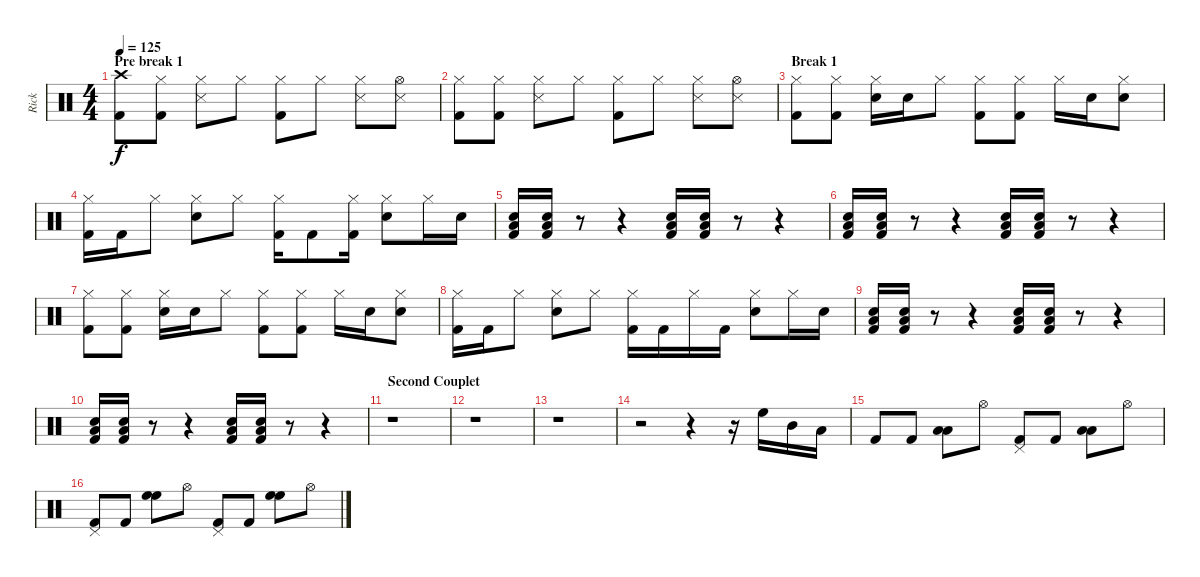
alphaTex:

\track ("Rick" "Rick") {instrument percussion}
\staff {score}
\articulation defaults
\ts (4 4)
\section ("" "Pre break 1")
\tempo 125
\clef neutral
\ks c
("Crash high (hit)" "Kick (hit) 2").8{dy f} ("Hi-Hat (closed)" "Kick (hit) 2").8 ("Hi-Hat (closed)" "Snare (side stick) 3").8 "Hi-Hat (closed)".8 ("Hi-Hat (closed)" "Kick (hit) 2").8 "Hi-Hat (closed)".8 ("Hi-Hat (closed)" "Snare (side stick) 3").8 ("Hi-Hat (open)" "Snare (side stick) 3").8 |
("Hi-Hat (closed)" "Kick (hit) 2").8 ("Hi-Hat (closed)" "Kick (hit) 2").8 ("Hi-Hat (closed)" "Snare (side stick) 3").8 "Hi-Hat (closed)".8 ("Hi-Hat (closed)" "Kick (hit) 2").8 "Hi-Hat (closed)".8 ("Hi-Hat (closed)" "Snare (side stick) 3").8 ("Hi-Hat (open)" "Snare (side stick) 3").8 |
\section ("" "Break 1")
("Hi-Hat (closed)" "Kick (hit) 2").8 ("Hi-Hat (closed)" "Kick (hit) 2").8 ("Hi-Hat (closed)" "Snare (hit) 2").16 "Snare (hit) 2".16 "Hi-Hat (closed)".8 ("Hi-Hat (closed)" "Kick (hit) 2").8 ("Hi-Hat (closed)" "Kick (hit) 2").8 "Hi-Hat (closed)".16 "Snare (hit) 2".16 ("Hi-Hat (closed)" "Snare (hit) 2").8 |
("Hi-Hat (closed)" "Kick (hit) 2").16 "Kick (hit) 2".16 "Hi-Hat (closed)".8 ("Hi-Hat (closed)" "Snare (hit) 2").8 "Hi-Hat (closed)".8 ("Hi-Hat (closed)" "Kick (hit) 2").16 "Kick (hit) 2".8 ("Hi-Hat (closed)" "Kick (hit) 2").16 ("Hi-Hat (closed)" "Snare (hit) 2").8 "Hi-Hat (closed)".16 "Snare (hit) 2".16 |
("Electric Snare (hit)" "Low Floor Tom (hit)" "Kick (hit) 2").16 ("Electric Snare (hit)" "Low Floor Tom (hit)" "Kick (hit) 2").16 r.8 r.4 ("Electric Snare (hit)" "Low Floor Tom (hit)" "Kick (hit) 2").16 ("Electric Snare (hit)" "Low Floor Tom (hit)" "Kick (hit) 2").16 r.8 r.4 |
("Electric Snare (hit)" "Low Floor Tom (hit)" "Kick (hit) 2").16 ("Electric Snare (hit)" "Low Floor Tom (hit)" "Kick (hit) 2").16 r.8 r.4 ("Electric Snare (hit)" "Low Floor Tom (hit)" "Kick (hit) 2").16 ("Electric Snare (hit)" "Low Floor Tom (hit)" "Kick (hit) 2").16 r.8 r.4 |
("Hi-Hat (closed)" "Kick (hit) 2").8 ("Hi-Hat (closed)" "Kick (hit) 2").8 ("Hi-Hat (closed)" "Snare (hit) 2").16 "Snare (hit) 2".16 "Hi-Hat (closed)".8 ("Hi-Hat (closed)" "Kick (hit) 2").8 ("Hi-Hat (closed)" "Kick (hit) 2").8 "Hi-Hat (closed)".16 "Snare (hit) 2".16 ("Hi-Hat (closed)" "Snare (hit) 2").8 |
("Hi-Hat (closed)" "Kick (hit) 2").16 "Kick (hit) 2".16 "Hi-Hat (closed)".8 ("Hi-Hat (closed)" "Snare (hit) 2").8 "Hi-Hat (closed)".8 ("Hi-Hat (closed)" "Kick (hit) 2").16 "Kick (hit) 2".16 "Hi-Hat (closed)".16 "Kick (hit) 2".16 ("Hi-Hat (closed)" "Snare (hit) 2").8 "Hi-Hat (closed)".16 "Snare (hit) 2".16 |
("Electric Snare (hit)" "Low Floor Tom (hit)" "Kick (hit) 2").16 ("Electric Snare (hit)" "Low Floor Tom (hit)" "Kick (hit) 2").16 r.8 r.4 ("Electric Snare (hit)" "Low Floor Tom (hit)" "Kick (hit) 2").16 ("Electric Snare (hit)" "Low Floor Tom (hit)" "Kick (hit) 2").16 r.8 r.4 |
("Electric Snare (hit)" "Low Floor Tom (hit)" "Kick (hit) 2").16 ("Electric Snare (hit)" "Low Floor Tom (hit)" "Kick (hit) 2").16 r.8 r.4 ("Electric Snare (hit)" "Low Floor Tom (hit)" "Kick (hit) 2").16 ("Electric Snare (hit)" "Low Floor Tom (hit)" "Kick (hit) 2").16 r.8 r.4 |
\section ("" "Second Couplet")
r.1 |
r.1 |
r.1 |
r.2 r.4 r.16 "High Floor Tom (hit)".16 "Mid Tom (hit)".16 "Low Floor Tom (hit)".16 |
"Kick (hit) 2".8 "Kick (hit) 2".8 ("Low Tom (hit)" "Low Tom (hit)").8 "Hi-Hat (open)".8 ("Pedal Hi-Hat (hit)" "Kick (hit) 2").8 "Kick (hit) 2".8 ("Low Tom (hit)" "Low Tom (hit)").8 "Hi-Hat (open)".8 |
("Pedal Hi-Hat (hit)" "Kick (hit) 2").8 "Kick (hit) 2".8 ("High Floor Tom (hit)" "High Floor Tom (hit)").8 "Hi-Hat (open)".8 ("Pedal Hi-Hat (hit)" "Kick (hit) 2").8 "Kick (hit) 2".8 ("High Floor Tom (hit)" "High Floor Tom (hit)").8 "Hi-Hat (open)".8
